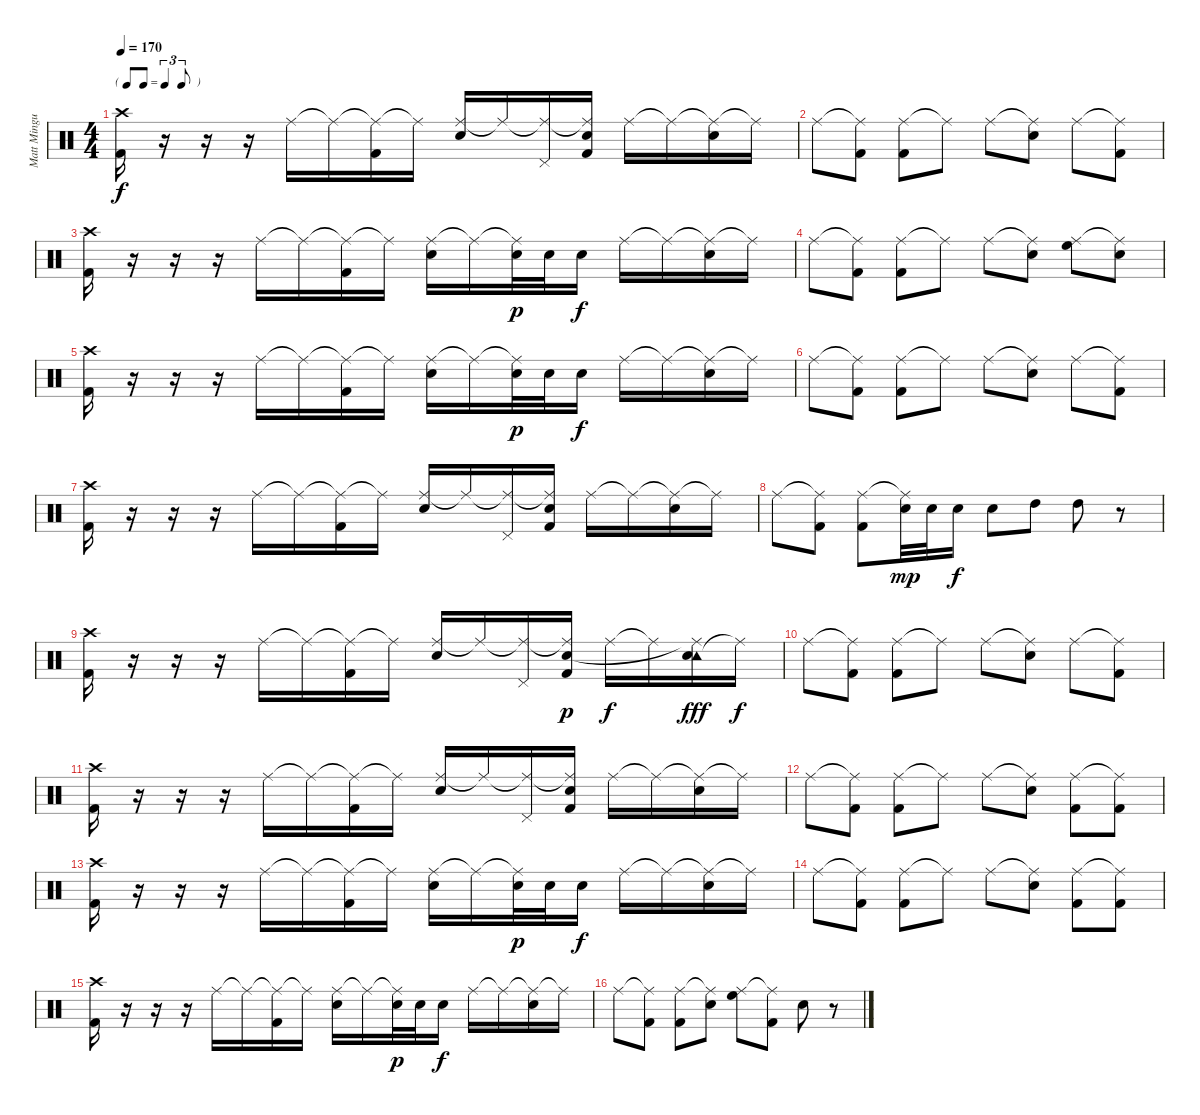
\track ("Matt Mingus" "Matt Mingu") {instrument percussion}
\staff {score}
\articulation defaults
\ts (4 4)
\tf triplet8th
\tempo 170
\clef neutral
\ks c
("Crash high (hit)" "Kick (hit) 2").16{dy f} r.16 r.16 r.16 "Ride (middle)".16 "Ride (middle)"{t}.16 ("Ride (middle)"{t} "Kick (hit) 2").16 "Ride (middle)"{t}.16 ("Ride (middle)" "Electric Snare (hit)").16 "Ride (middle)"{t}.16 ("Ride (middle)"{t} "Pedal Hi-Hat (hit)").16 ("Ride (middle)"{t} "Electric Snare (hit)" "Kick (hit) 2").16 "Ride (middle)".16 "Ride (middle)"{t}.16 ("Ride (middle)"{t} "Electric Snare (hit)").16 "Ride (middle)"{t}.16 |
"Ride (middle)".8 ("Ride (middle)"{t} "Kick (hit) 2").8 ("Ride (middle)" "Kick (hit) 2").8 "Ride (middle)"{t}.8 "Ride (middle)".8 ("Ride (middle)"{t} "Electric Snare (hit)").8 "Ride (middle)".8 ("Ride (middle)"{t} "Kick (hit) 2").8 |
("Crash high (hit)" "Kick (hit) 2").16 r.16 r.16 r.16 "Ride (middle)".16 "Ride (middle)"{t}.16 ("Ride (middle)"{t} "Kick (hit) 2").16 "Ride (middle)"{t}.16 ("Ride (middle)" "Electric Snare (hit)").16 "Ride (middle)"{t}.16 ("Ride (middle)"{t} "Electric Snare (hit)").32{dy p} "Electric Snare (hit)".32 "Electric Snare (hit)".16{dy f} "Ride (middle)".16 "Ride (middle)"{t}.16 ("Ride (middle)"{t} "Electric Snare (hit)").16 "Ride (middle)"{t}.16 |
"Ride (middle)".8 ("Ride (middle)"{t} "Kick (hit) 2").8 ("Ride (middle)" "Kick (hit) 2").8 "Ride (middle)"{t}.8 "Ride (middle)".8 ("Ride (middle)"{t} "Electric Snare (hit)").8 ("Ride (middle)" "High Floor Tom (hit)").8 ("Ride (middle)"{t} "Electric Snare (hit)").8 |
("Crash high (hit)" "Kick (hit) 2").16 r.16 r.16 r.16 "Ride (middle)".16 "Ride (middle)"{t}.16 ("Ride (middle)"{t} "Kick (hit) 2").16 "Ride (middle)"{t}.16 ("Ride (middle)" "Electric Snare (hit)").16 "Ride (middle)"{t}.16 ("Ride (middle)"{t} "Electric Snare (hit)").32{dy p} "Electric Snare (hit)".32 "Electric Snare (hit)".16{dy f} "Ride (middle)".16 "Ride (middle)"{t}.16 ("Ride (middle)"{t} "Electric Snare (hit)").16 "Ride (middle)"{t}.16 |
"Ride (middle)".8 ("Ride (middle)"{t} "Kick (hit) 2").8 ("Ride (middle)" "Kick (hit) 2").8 "Ride (middle)"{t}.8 "Ride (middle)".8 ("Ride (middle)"{t} "Electric Snare (hit)").8 "Ride (middle)".8 ("Ride (middle)"{t} "Kick (hit) 2").8 |
("Crash high (hit)" "Kick (hit) 2").16 r.16 r.16 r.16 "Ride (middle)".16 "Ride (middle)"{t}.16 ("Ride (middle)"{t} "Kick (hit) 2").16 "Ride (middle)"{t}.16 ("Ride (middle)" "Electric Snare (hit)").16 "Ride (middle)"{t}.16 ("Ride (middle)"{t} "Pedal Hi-Hat (hit)").16 ("Ride (middle)"{t} "Electric Snare (hit)" "Kick (hit) 2").16 "Ride (middle)".16 "Ride (middle)"{t}.16 ("Ride (middle)"{t} "Electric Snare (hit)").16 "Ride (middle)"{t}.16 |
"Ride (middle)".8 ("Ride (middle)"{t} "Kick (hit) 2").8 ("Ride (middle)" "Kick (hit) 2").8 ("Ride (middle)"{t} "Electric Snare (hit)").32{dy mp} "Electric Snare (hit)".32 "Electric Snare (hit)".16{dy f} "Electric Snare (hit)".8 "High Tom (hit)".8 "High Tom (hit)".8 r.8 |
("Crash high (hit)" "Kick (hit) 2").16 r.16 r.16 r.16 "Ride (middle)".16 "Ride (middle)"{t}.16 ("Ride (middle)"{t} "Kick (hit) 2").16 "Ride (middle)"{t}.16 ("Ride (middle)" "Electric Snare (hit)").16 "Ride (middle)"{t}.16 ("Ride (middle)"{t} "Pedal Hi-Hat (hit)").16 ("Ride (middle)"{t} "Electric Snare (hit)" "Kick (hit) 2").16{dy p} "Ride (middle)".16{dy f} "Ride (middle)"{t}.16 ("Tambourine (hit)" "Ride (middle)"{t} "Electric Snare (hit)").16{dy fff} "Ride (middle)"{t}.16{dy f} |
"Ride (middle)".8 ("Ride (middle)"{t} "Kick (hit) 2").8 ("Ride (middle)" "Kick (hit) 2").8 "Ride (middle)"{t}.8 "Ride (middle)".8 ("Ride (middle)"{t} "Electric Snare (hit)").8 "Ride (middle)".8 ("Ride (middle)"{t} "Kick (hit) 2").8 |
("Crash high (hit)" "Kick (hit) 2").16 r.16 r.16 r.16 "Ride (middle)".16 "Ride (middle)"{t}.16 ("Ride (middle)"{t} "Kick (hit) 2").16 "Ride (middle)"{t}.16 ("Ride (middle)" "Electric Snare (hit)").16 "Ride (middle)"{t}.16 ("Ride (middle)"{t} "Pedal Hi-Hat (hit)").16 ("Ride (middle)"{t} "Electric Snare (hit)" "Kick (hit) 2").16 "Ride (middle)".16 "Ride (middle)"{t}.16 ("Ride (middle)"{t} "Electric Snare (hit)").16 "Ride (middle)"{t}.16 |
"Ride (middle)".8 ("Ride (middle)"{t} "Kick (hit) 2").8 ("Ride (middle)" "Kick (hit) 2").8 "Ride (middle)"{t}.8 "Ride (middle)".8 ("Ride (middle)"{t} "Electric Snare (hit)").8 ("Ride (middle)" "Kick (hit) 2").8 ("Ride (middle)"{t} "Kick (hit) 2").8 |
("Crash high (hit)" "Kick (hit) 2").16 r.16 r.16 r.16 "Ride (middle)".16 "Ride (middle)"{t}.16 ("Ride (middle)"{t} "Kick (hit) 2").16 "Ride (middle)"{t}.16 ("Ride (middle)" "Electric Snare (hit)").16 "Ride (middle)"{t}.16 ("Ride (middle)"{t} "Electric Snare (hit)").32{dy p} "Electric Snare (hit)".32 "Electric Snare (hit)".16{dy f} "Ride (middle)".16 "Ride (middle)"{t}.16 ("Ride (middle)"{t} "Electric Snare (hit)").16 "Ride (middle)"{t}.16 |
"Ride (middle)".8 ("Ride (middle)"{t} "Kick (hit) 2").8 ("Ride (middle)" "Kick (hit) 2").8 "Ride (middle)"{t}.8 "Ride (middle)".8 ("Ride (middle)"{t} "Electric Snare (hit)").8 ("Ride (middle)" "Kick (hit) 2").8 ("Ride (middle)"{t} "Kick (hit) 2").8 |
("Crash high (hit)" "Kick (hit) 2").16 r.16 r.16 r.16 "Ride (middle)".16 "Ride (middle)"{t}.16 ("Ride (middle)"{t} "Kick (hit) 2").16 "Ride (middle)"{t}.16 ("Ride (middle)" "Electric Snare (hit)").16 "Ride (middle)"{t}.16 ("Ride (middle)"{t} "Electric Snare (hit)").32{dy p} "Electric Snare (hit)".32 "Electric Snare (hit)".16{dy f} "Ride (middle)".16 "Ride (middle)"{t}.16 ("Ride (middle)"{t} "Electric Snare (hit)").16 "Ride (middle)"{t}.16 |
"Ride (middle)".8 ("Ride (middle)"{t} "Kick (hit) 2").8 ("Ride (middle)" "Kick (hit) 2").8 ("Ride (middle)"{t} "Electric Snare (hit)").8 ("Ride (middle)" "High Floor Tom (hit)").8 ("Ride (middle)"{t} "Kick (hit) 2").8 "Electric Snare (hit)".8 r.8
